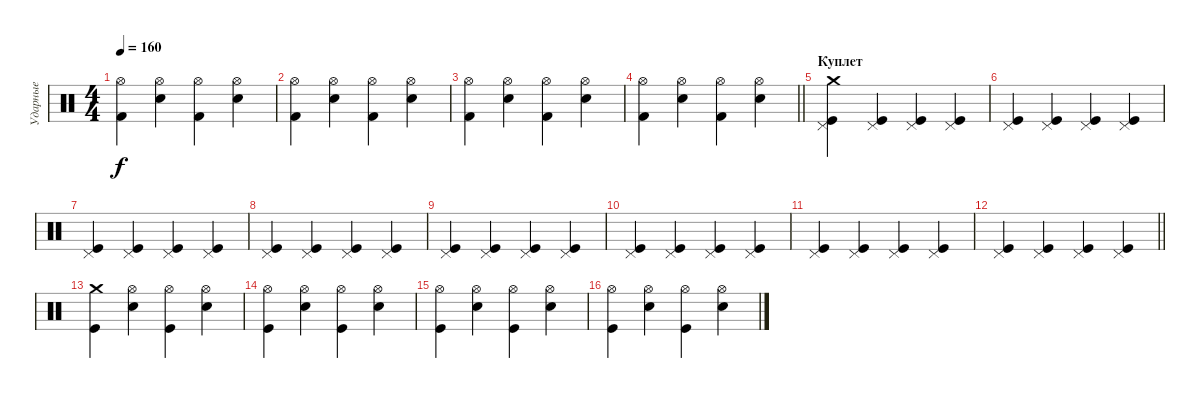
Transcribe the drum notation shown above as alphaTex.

\track ("Ударные" "Ударные") {instrument percussion}
\staff {score}
\articulation defaults
\ts (4 4)
\tempo 160
\clef neutral
\ks c
("Hi-Hat (open)" "Kick (hit) 2").4{dy f} ("Hi-Hat (open)" "Electric Snare (hit)").4 ("Hi-Hat (open)" "Kick (hit) 2").4 ("Hi-Hat (open)" "Electric Snare (hit)").4 |
("Hi-Hat (open)" "Kick (hit) 2").4 ("Hi-Hat (open)" "Electric Snare (hit)").4 ("Hi-Hat (open)" "Kick (hit) 2").4 ("Hi-Hat (open)" "Electric Snare (hit)").4 |
("Hi-Hat (open)" "Kick (hit) 2").4 ("Hi-Hat (open)" "Electric Snare (hit)").4 ("Hi-Hat (open)" "Kick (hit) 2").4 ("Hi-Hat (open)" "Electric Snare (hit)").4 |
\barLineRight lightlight
("Hi-Hat (open)" "Kick (hit) 2").4 ("Hi-Hat (open)" "Electric Snare (hit)").4 ("Hi-Hat (open)" "Kick (hit) 2").4 ("Hi-Hat (open)" "Electric Snare (hit)").4 |
\section ("" "Куплет")
("Crash medium (hit)" "Pedal Hi-Hat (hit)" "Kick (hit)").4 ("Pedal Hi-Hat (hit)" "Kick (hit)").4 ("Pedal Hi-Hat (hit)" "Kick (hit)").4 ("Pedal Hi-Hat (hit)" "Kick (hit)").4 |
("Pedal Hi-Hat (hit)" "Kick (hit)").4 ("Pedal Hi-Hat (hit)" "Kick (hit)").4 ("Pedal Hi-Hat (hit)" "Kick (hit)").4 ("Pedal Hi-Hat (hit)" "Kick (hit)").4 |
("Pedal Hi-Hat (hit)" "Kick (hit)").4 ("Pedal Hi-Hat (hit)" "Kick (hit)").4 ("Pedal Hi-Hat (hit)" "Kick (hit)").4 ("Pedal Hi-Hat (hit)" "Kick (hit)").4 |
("Pedal Hi-Hat (hit)" "Kick (hit)").4 ("Pedal Hi-Hat (hit)" "Kick (hit)").4 ("Pedal Hi-Hat (hit)" "Kick (hit)").4 ("Pedal Hi-Hat (hit)" "Kick (hit)").4 |
("Pedal Hi-Hat (hit)" "Kick (hit)").4 ("Pedal Hi-Hat (hit)" "Kick (hit)").4 ("Pedal Hi-Hat (hit)" "Kick (hit)").4 ("Pedal Hi-Hat (hit)" "Kick (hit)").4 |
("Pedal Hi-Hat (hit)" "Kick (hit)").4 ("Pedal Hi-Hat (hit)" "Kick (hit)").4 ("Pedal Hi-Hat (hit)" "Kick (hit)").4 ("Pedal Hi-Hat (hit)" "Kick (hit)").4 |
("Pedal Hi-Hat (hit)" "Kick (hit)").4 ("Pedal Hi-Hat (hit)" "Kick (hit)").4 ("Pedal Hi-Hat (hit)" "Kick (hit)").4 ("Pedal Hi-Hat (hit)" "Kick (hit)").4 |
\barLineRight lightlight
("Pedal Hi-Hat (hit)" "Kick (hit)").4 ("Pedal Hi-Hat (hit)" "Kick (hit)").4 ("Pedal Hi-Hat (hit)" "Kick (hit)").4 ("Pedal Hi-Hat (hit)" "Kick (hit)").4 |
\section ("" " ")
("Crash medium (hit)" "Kick (hit)").4 ("Hi-Hat (open)" "Electric Snare (hit)").4 ("Hi-Hat (open)" "Kick (hit)").4 ("Hi-Hat (open)" "Electric Snare (hit)").4 |
("Hi-Hat (open)" "Kick (hit)").4 ("Hi-Hat (open)" "Electric Snare (hit)").4 ("Hi-Hat (open)" "Kick (hit)").4 ("Hi-Hat (open)" "Electric Snare (hit)").4 |
("Hi-Hat (open)" "Kick (hit)").4 ("Hi-Hat (open)" "Electric Snare (hit)").4 ("Hi-Hat (open)" "Kick (hit)").4 ("Hi-Hat (open)" "Electric Snare (hit)").4 |
("Hi-Hat (open)" "Kick (hit)").4 ("Hi-Hat (open)" "Electric Snare (hit)").4 ("Hi-Hat (open)" "Kick (hit)").4 ("Hi-Hat (open)" "Electric Snare (hit)").4
